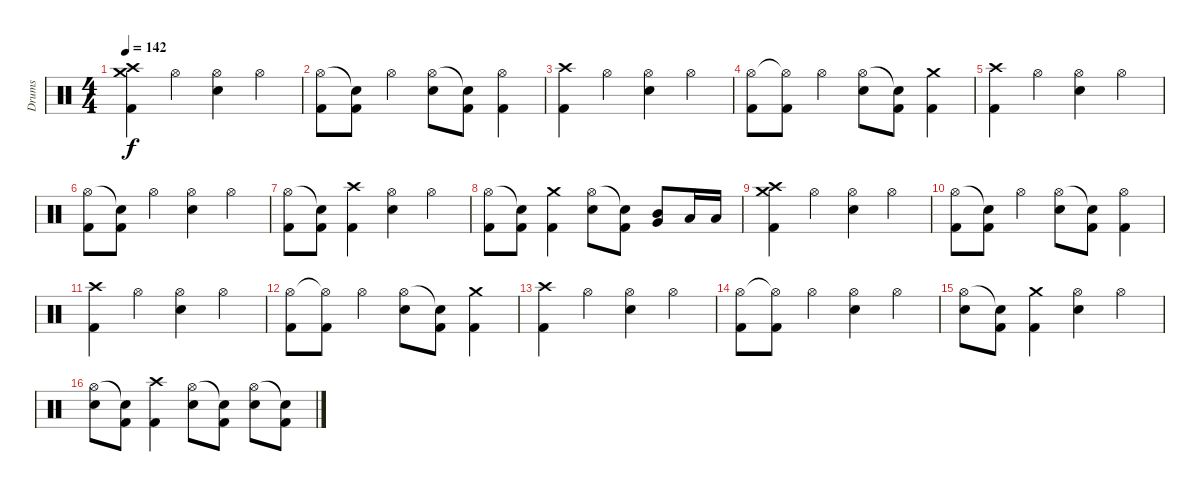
\track ("Drums" "Drums") {instrument percussion}
\staff {score}
\articulation defaults
\ts (4 4)
\tempo 142
\clef neutral
\ks c
("Crash high (hit)" "Crash medium (hit)" "Kick (hit) 2").4{dy f} "Hi-Hat (open)".4 ("Hi-Hat (open)" "Snare (hit) 2").4 "Hi-Hat (open)".4 |
("Hi-Hat (open)" "Kick (hit) 2").8 ("Snare (hit)"{t} "Kick (hit) 2").8 "Hi-Hat (open)".4 ("Hi-Hat (open)" "Snare (hit) 2").8 ("Snare (hit)"{t} "Kick (hit) 2").8 ("Hi-Hat (open)" "Kick (hit) 2").4 |
("Crash high (hit)" "Kick (hit) 2").4 "Hi-Hat (open)".4 ("Hi-Hat (open)" "Snare (hit) 2").4 "Hi-Hat (open)".4 |
("Hi-Hat (open)" "Kick (hit) 2").8 ("Hi-Hat (open)"{t} "Kick (hit) 2").8 "Hi-Hat (open)".4 ("Hi-Hat (open)" "Snare (hit) 2").8 ("Snare (hit)"{t} "Kick (hit) 2").8 ("Crash medium (hit)" "Kick (hit) 2").4 |
("Crash high (hit)" "Kick (hit) 2").4 "Hi-Hat (open)".4 ("Hi-Hat (open)" "Snare (hit) 2").4 "Hi-Hat (open)".4 |
("Hi-Hat (open)" "Kick (hit) 2").8 ("Snare (hit)"{t} "Kick (hit) 2").8 "Hi-Hat (open)".4 ("Hi-Hat (open)" "Snare (hit) 2").4 "Hi-Hat (open)".4 |
("Hi-Hat (open)" "Kick (hit) 2").8 ("Snare (hit)"{t} "Kick (hit) 2").8 ("Crash high (hit)" "Kick (hit) 2").4 ("Hi-Hat (open)" "Snare (hit) 2").4 "Hi-Hat (open)".4 |
("Hi-Hat (open)" "Kick (hit) 2").8 ("Snare (hit)"{t} "Kick (hit) 2").8 ("Crash medium (hit)" "Kick (hit) 2").4 ("Hi-Hat (open)" "Snare (hit) 2").8 ("Snare (hit)"{t} "Kick (hit) 2").8 ("Mid Tom (hit)" "Very Low Tom (hit)").8 "Low Tom (hit)".16 "Low Tom (hit)".16 |
("Crash high (hit)" "Crash medium (hit)" "Kick (hit) 2").4 "Hi-Hat (open)".4 ("Hi-Hat (open)" "Snare (hit) 2").4 "Hi-Hat (open)".4 |
("Hi-Hat (open)" "Kick (hit) 2").8 ("Snare (hit)"{t} "Kick (hit) 2").8 "Hi-Hat (open)".4 ("Hi-Hat (open)" "Snare (hit) 2").8 ("Snare (hit)"{t} "Kick (hit) 2").8 ("Hi-Hat (open)" "Kick (hit) 2").4 |
("Crash high (hit)" "Kick (hit) 2").4 "Hi-Hat (open)".4 ("Hi-Hat (open)" "Snare (hit) 2").4 "Hi-Hat (open)".4 |
("Hi-Hat (open)" "Kick (hit) 2").8 ("Hi-Hat (open)"{t} "Kick (hit) 2").8 "Hi-Hat (open)".4 ("Hi-Hat (open)" "Snare (hit) 2").8 ("Snare (hit)"{t} "Kick (hit) 2").8 ("Crash medium (hit)" "Kick (hit) 2").4 |
("Crash high (hit)" "Kick (hit) 2").4 "Hi-Hat (open)".4 ("Hi-Hat (open)" "Snare (hit) 2").4 "Hi-Hat (open)".4 |
("Hi-Hat (open)" "Kick (hit) 2").8 ("Hi-Hat (open)"{t} "Kick (hit) 2").8 "Hi-Hat (open)".4 ("Hi-Hat (open)" "Snare (hit) 2").4 "Hi-Hat (open)".4 |
("Hi-Hat (open)" "Snare (hit) 2").8 ("Snare (hit)"{t} "Kick (hit) 2").8 ("Crash medium (hit)" "Kick (hit) 2").4 ("Hi-Hat (open)" "Snare (hit) 2").4 "Hi-Hat (open)".4 |
("Hi-Hat (open)" "Snare (hit) 2").8 ("Snare (hit)"{t} "Kick (hit) 2").8 ("Crash high (hit)" "Kick (hit) 2").4 ("Hi-Hat (open)" "Snare (hit) 2").8 ("Snare (hit)"{t} "Kick (hit) 2").8 ("Hi-Hat (open)" "Snare (hit) 2").8 ("Snare (hit)"{t} "Kick (hit) 2").8
